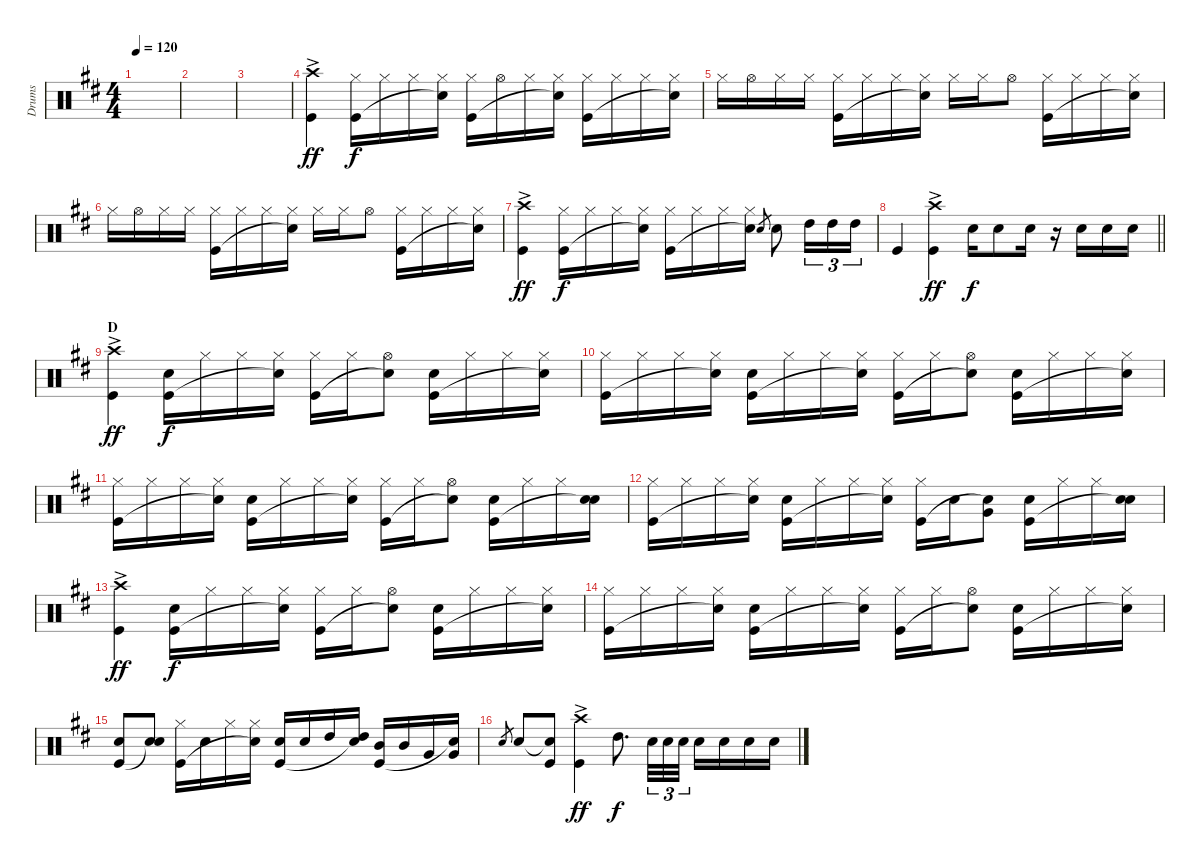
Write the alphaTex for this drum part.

\track ("Drums" "Drums") {instrument percussion}
\staff {score}
\articulation defaults
\ts (4 4)
\tempo 120
\clef neutral
\ks d
|
|
|
("Crash high (hit)"{ac} "Kick (hit)").4{dy ff} ("Hi-Hat (closed)" "Kick (hit)").16{dy f} "Hi-Hat (closed)".16 "Hi-Hat (closed)".16 ("Hi-Hat (closed)" "Snare (hit)"{t}).16 ("Hi-Hat (closed)" "Kick (hit)").16 "Hi-Hat (open)".16 "Hi-Hat (closed)".16 ("Hi-Hat (closed)" "Snare (hit)"{t}).16 ("Hi-Hat (closed)" "Kick (hit)").16 "Hi-Hat (closed)".16 "Hi-Hat (closed)".16 ("Hi-Hat (closed)" "Snare (hit)"{t}).16 |
"Hi-Hat (closed)".16 "Hi-Hat (open)".16 "Hi-Hat (closed)".16 "Hi-Hat (closed)".16 ("Hi-Hat (closed)" "Kick (hit)").16 "Hi-Hat (closed)".16 "Hi-Hat (closed)".16 ("Hi-Hat (closed)" "Snare (hit)"{t}).16 "Hi-Hat (closed)".16 "Hi-Hat (closed)".16 "Hi-Hat (open)".8 ("Hi-Hat (closed)" "Kick (hit)").16 "Hi-Hat (closed)".16 "Hi-Hat (closed)".16 ("Hi-Hat (closed)" "Snare (hit)"{t}).16 |
"Hi-Hat (closed)".16 "Hi-Hat (open)".16 "Hi-Hat (closed)".16 "Hi-Hat (closed)".16 ("Hi-Hat (closed)" "Kick (hit)").16 "Hi-Hat (closed)".16 "Hi-Hat (closed)".16 ("Hi-Hat (closed)" "Snare (hit)"{t}).16 "Hi-Hat (closed)".16 "Hi-Hat (closed)".16 "Hi-Hat (open)".8 ("Hi-Hat (closed)" "Kick (hit)").16 "Hi-Hat (closed)".16 "Hi-Hat (closed)".16 ("Hi-Hat (closed)" "Snare (hit)"{t}).16 |
("Crash high (hit)"{ac} "Kick (hit)").4{dy ff} ("Hi-Hat (closed)" "Kick (hit)").16{dy f} "Hi-Hat (closed)".16 "Hi-Hat (closed)".16 ("Hi-Hat (closed)" "Snare (hit)"{t}).16 ("Hi-Hat (closed)" "Kick (hit)").16 "Hi-Hat (closed)".16 "Hi-Hat (closed)".16 ("Hi-Hat (closed)" "Snare (hit)"{t}).16 "Snare (hit) 2".8{gr} "Snare (hit) 2".8 "High Tom (hit)".16{tu (3 2)} "High Tom (hit)".16{tu (3 2)} "High Tom (hit)".16{tu (3 2)} |
\barLineRight lightlight "Kick (hit)".4
("Crash high (hit)"{ac} "Kick (hit)").4{dy ff} "Snare (hit) 2".16{dy f} "Snare (hit) 2".8 "Snare (hit) 2".16 r.16 "Snare (hit) 2".16 "Snare (hit) 2".16 "Snare (hit) 2".16 |
\section ("" "D")
("Crash high (hit)"{ac} "Kick (hit)").4{dy ff} ("Snare (hit) 2" "Kick (hit)").16{dy f} "Hi-Hat (closed)".16 "Hi-Hat (closed)".16 ("Hi-Hat (closed)" "Snare (hit)"{t}).16 ("Hi-Hat (closed)" "Kick (hit)").16 "Hi-Hat (closed)".16 ("Hi-Hat (open)" "Snare (hit)"{t}).8 ("Snare (hit) 2" "Kick (hit)").16 "Hi-Hat (closed)".16 "Hi-Hat (closed)".16 ("Hi-Hat (closed)" "Snare (hit)"{t}).16 |
("Hi-Hat (closed)" "Kick (hit)").16 "Hi-Hat (closed)".16 "Hi-Hat (closed)".16 ("Hi-Hat (closed)" "Snare (hit)"{t}).16 ("Snare (hit) 2" "Kick (hit)").16 "Hi-Hat (closed)".16 "Hi-Hat (closed)".16 ("Hi-Hat (closed)" "Snare (hit)"{t}).16 ("Hi-Hat (closed)" "Kick (hit)").16 "Hi-Hat (closed)".16 ("Hi-Hat (open)" "Snare (hit)"{t}).8 ("Snare (hit) 2" "Kick (hit)").16 "Hi-Hat (closed)".16 "Hi-Hat (closed)".16 ("Hi-Hat (closed)" "Snare (hit)"{t}).16 |
("Hi-Hat (closed)" "Kick (hit)").16 "Hi-Hat (closed)".16 "Hi-Hat (closed)".16 ("Hi-Hat (closed)" "Snare (hit)"{t}).16 ("Snare (hit) 2" "Kick (hit)").16 "Hi-Hat (closed)".16 "Hi-Hat (closed)".16 ("Hi-Hat (closed)" "Snare (hit)"{t}).16 ("Hi-Hat (closed)" "Kick (hit)").16 "Hi-Hat (closed)".16 ("Hi-Hat (open)" "Snare (hit)"{t}).8 ("Snare (hit) 2" "Kick (hit)").16 "Hi-Hat (closed)".16 "Hi-Hat (closed)".16 ("Snare (hit) 2" "Snare (hit)"{t}).16 |
("Hi-Hat (closed)" "Kick (hit)").16 "Hi-Hat (closed)".16 "Hi-Hat (closed)".16 ("Hi-Hat (closed)" "Snare (hit)"{t}).16 ("Snare (hit) 2" "Kick (hit)").16 "Hi-Hat (closed)".16 "Hi-Hat (closed)".16 ("Hi-Hat (closed)" "Snare (hit)"{t}).16 ("Hi-Hat (closed)" "Kick (hit)").16 "Snare (hit) 2".16 ("Very Low Tom (hit)" "Snare (hit)"{t}).8 ("Snare (hit) 2" "Kick (hit)").16 "Hi-Hat (closed)".16 "Hi-Hat (closed)".16 ("Snare (hit) 2" "Snare (hit)"{t}).16 |
("Crash high (hit)"{ac} "Kick (hit)").4{dy ff} ("Snare (hit) 2" "Kick (hit)").16{dy f} "Hi-Hat (closed)".16 "Hi-Hat (closed)".16 ("Hi-Hat (closed)" "Snare (hit)"{t}).16 ("Hi-Hat (closed)" "Kick (hit)").16 "Hi-Hat (closed)".16 ("Hi-Hat (open)" "Snare (hit)"{t}).8 ("Snare (hit) 2" "Kick (hit)").16 "Hi-Hat (closed)".16 "Hi-Hat (closed)".16 ("Hi-Hat (closed)" "Snare (hit)"{t}).16 |
("Hi-Hat (closed)" "Kick (hit)").16 "Hi-Hat (closed)".16 "Hi-Hat (closed)".16 ("Hi-Hat (closed)" "Snare (hit)"{t}).16 ("Snare (hit) 2" "Kick (hit)").16 "Hi-Hat (closed)".16 "Hi-Hat (closed)".16 ("Hi-Hat (closed)" "Snare (hit)"{t}).16 ("Hi-Hat (closed)" "Kick (hit)").16 "Hi-Hat (closed)".16 ("Hi-Hat (open)" "Snare (hit)"{t}).8 ("Snare (hit) 2" "Kick (hit)").16 "Hi-Hat (closed)".16 "Hi-Hat (closed)".16 ("Hi-Hat (closed)" "Snare (hit)"{t}).16 |
("Snare (hit) 2" "Kick (hit)").8 ("Snare (hit) 2" "Snare (hit)"{t}).8 ("Hi-Hat (closed)" "Kick (hit)").16 "Snare (hit) 2".16 "Hi-Hat (closed)".16 ("Hi-Hat (closed)" "Snare (hit)"{t}).16 ("Snare (hit) 2" "Kick (hit)").16 "Snare (hit) 2".16 "High Tom (hit)".16 ("High Tom (hit)" "Snare (hit)"{t}).16 ("Mid Tom (hit)" "Kick (hit)").16 "Mid Tom (hit)".16 "Very Low Tom (hit)".16 ("Very Low Tom (hit)" "Snare (hit)"{t}).16 |
"Snare (hit) 2".8{gr} "Snare (hit) 2".8 ("Snare (hit)"{t} "Kick (hit)").8 ("Crash high (hit)"{ac} "Kick (hit)").4{dy ff} "High Tom (hit)".8{d dy f} "Snare (hit) 2".32{tu (3 2)} "Snare (hit) 2".32{tu (3 2)} "Snare (hit) 2".32{tu (3 2)} "Snare (hit) 2".16 "Snare (hit) 2".16 "Snare (hit) 2".16 "Snare (hit) 2".16
